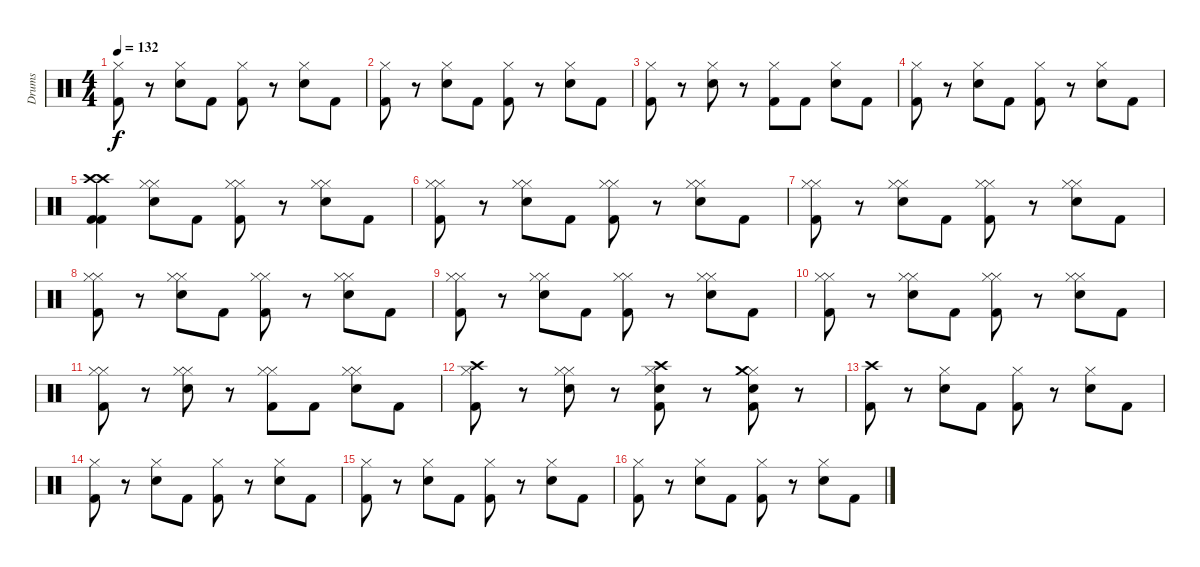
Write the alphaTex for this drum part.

\track ("Drums" "Drums") {instrument percussion}
\staff {score}
\articulation defaults
\ts (4 4)
\tempo 132
\clef neutral
\ks c
("Hi-Hat (closed)" "Kick (hit) 2").8{dy f} r.8 ("Electric Snare (hit)" "Hi-Hat (closed)").8 "Kick (hit) 2".8 ("Kick (hit) 2" "Hi-Hat (closed)").8 r.8 ("Electric Snare (hit)" "Hi-Hat (closed)").8 "Kick (hit) 2".8 |
("Hi-Hat (closed)" "Kick (hit) 2").8 r.8 ("Hi-Hat (closed)" "Electric Snare (hit)").8 "Kick (hit) 2".8 ("Hi-Hat (closed)" "Kick (hit) 2").8 r.8 ("Hi-Hat (closed)" "Electric Snare (hit)").8 "Kick (hit) 2".8 |
("Hi-Hat (closed)" "Kick (hit) 2").8 r.8 ("Hi-Hat (closed)" "Electric Snare (hit)").8 r.8 ("Hi-Hat (closed)" "Kick (hit) 2").8 "Kick (hit) 2".8 ("Hi-Hat (closed)" "Electric Snare (hit)").8 "Kick (hit) 2".8 |
("Kick (hit) 2" "Hi-Hat (closed)").8 r.8 ("Hi-Hat (closed)" "Electric Snare (hit)").8 "Kick (hit) 2".8 ("Hi-Hat (closed)" "Kick (hit) 2").8 r.8 ("Hi-Hat (closed)" "Electric Snare (hit)").8 "Kick (hit) 2".8 |
("Crash high (hit)" "Kick (hit) 2" "Crash high (hit)" "Kick (hit) 2").4 ("Hi-Hat (closed)" "Hi-Hat (closed)" "Electric Snare (hit)").8 "Kick (hit) 2".8 ("Hi-Hat (closed)" "Hi-Hat (closed)" "Kick (hit) 2").8 r.8 ("Hi-Hat (closed)" "Hi-Hat (closed)" "Electric Snare (hit)").8 "Kick (hit) 2".8 |
("Hi-Hat (closed)" "Hi-Hat (closed)" "Kick (hit) 2").8 r.8 ("Hi-Hat (closed)" "Electric Snare (hit)" "Hi-Hat (closed)").8 "Kick (hit) 2".8 ("Hi-Hat (closed)" "Kick (hit) 2" "Hi-Hat (closed)").8 r.8 ("Hi-Hat (closed)" "Electric Snare (hit)" "Hi-Hat (closed)").8 "Kick (hit) 2".8 |
("Hi-Hat (closed)" "Hi-Hat (closed)" "Kick (hit) 2").8 r.8 ("Hi-Hat (closed)" "Electric Snare (hit)" "Hi-Hat (closed)").8 "Kick (hit) 2".8 ("Hi-Hat (closed)" "Kick (hit) 2" "Hi-Hat (closed)").8 r.8 ("Hi-Hat (closed)" "Electric Snare (hit)" "Hi-Hat (closed)").8 "Kick (hit) 2".8 |
("Hi-Hat (closed)" "Hi-Hat (closed)" "Kick (hit) 2").8 r.8 ("Hi-Hat (closed)" "Electric Snare (hit)" "Hi-Hat (closed)").8 "Kick (hit) 2".8 ("Hi-Hat (closed)" "Kick (hit) 2" "Hi-Hat (closed)").8 r.8 ("Hi-Hat (closed)" "Electric Snare (hit)" "Hi-Hat (closed)").8 "Kick (hit) 2".8 |
("Hi-Hat (closed)" "Hi-Hat (closed)" "Kick (hit) 2").8 r.8 ("Hi-Hat (closed)" "Electric Snare (hit)" "Hi-Hat (closed)").8 "Kick (hit) 2".8 ("Hi-Hat (closed)" "Kick (hit) 2" "Hi-Hat (closed)").8 r.8 ("Hi-Hat (closed)" "Electric Snare (hit)" "Hi-Hat (closed)").8 "Kick (hit) 2".8 |
("Hi-Hat (closed)" "Hi-Hat (closed)" "Kick (hit) 2").8 r.8 ("Hi-Hat (closed)" "Hi-Hat (closed)" "Electric Snare (hit)").8 "Kick (hit) 2".8 ("Hi-Hat (closed)" "Hi-Hat (closed)" "Kick (hit) 2").8 r.8 ("Hi-Hat (closed)" "Hi-Hat (closed)" "Electric Snare (hit)").8 "Kick (hit) 2".8 |
("Hi-Hat (closed)" "Hi-Hat (closed)" "Kick (hit) 2").8 r.8 ("Hi-Hat (closed)" "Hi-Hat (closed)" "Electric Snare (hit)").8 r.8 ("Hi-Hat (closed)" "Hi-Hat (closed)" "Kick (hit) 2").8 "Kick (hit) 2".8 ("Hi-Hat (closed)" "Hi-Hat (closed)" "Electric Snare (hit)").8 "Kick (hit) 2".8 |
("Hi-Hat (closed)" "Kick (hit) 2" "Crash high (hit)").8 r.8 ("Hi-Hat (closed)" "Hi-Hat (closed)" "Electric Snare (hit)").8 r.8 ("Hi-Hat (closed)" "Electric Snare (hit)" "Kick (hit) 2" "Crash high (hit)").8 r.8 ("Hi-Hat (closed)" "Electric Snare (hit)" "Kick (hit) 2" "Crash medium (hit)").8 r.8 |
("Crash high (hit)" "Kick (hit) 2").8 r.8 ("Hi-Hat (closed)" "Electric Snare (hit)").8 "Kick (hit) 2".8 ("Hi-Hat (closed)" "Kick (hit) 2").8 r.8 ("Hi-Hat (closed)" "Electric Snare (hit)").8 "Kick (hit) 2".8 |
("Hi-Hat (closed)" "Kick (hit) 2").8 r.8 ("Electric Snare (hit)" "Hi-Hat (closed)").8 "Kick (hit) 2".8 ("Kick (hit) 2" "Hi-Hat (closed)").8 r.8 ("Electric Snare (hit)" "Hi-Hat (closed)").8 "Kick (hit) 2".8 |
("Hi-Hat (closed)" "Kick (hit) 2").8 r.8 ("Electric Snare (hit)" "Hi-Hat (closed)").8 "Kick (hit) 2".8 ("Kick (hit) 2" "Hi-Hat (closed)").8 r.8 ("Electric Snare (hit)" "Hi-Hat (closed)").8 "Kick (hit) 2".8 |
("Hi-Hat (closed)" "Kick (hit) 2").8 r.8 ("Electric Snare (hit)" "Hi-Hat (closed)").8 "Kick (hit) 2".8 ("Kick (hit) 2" "Hi-Hat (closed)").8 r.8 ("Electric Snare (hit)" "Hi-Hat (closed)").8 "Kick (hit) 2".8
